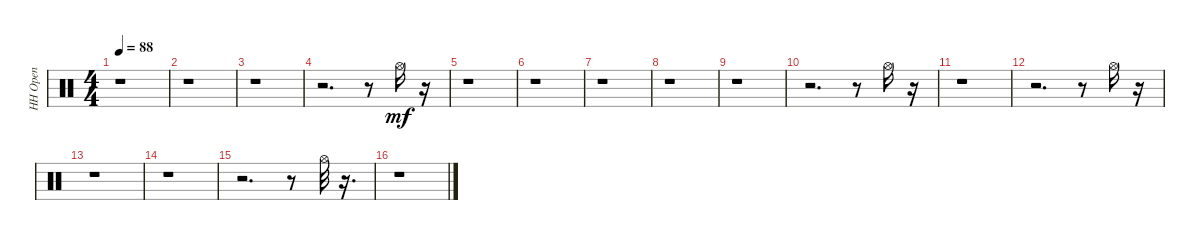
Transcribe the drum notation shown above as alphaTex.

\track ("HH Open" "HH Open") {instrument percussion}
\staff {score}
\articulation defaults
\ts (4 4)
\tempo 88
\clef neutral
\ks c
r.1{dy mf} |
r.1 |
r.1 |
r.2{d} r.8 "Hi-Hat (open)".16 r.16 |
r.1 |
r.1 |
r.1 |
r.1 |
r.1 |
r.2{d} r.8 "Hi-Hat (open)".16 r.16 |
r.1 |
r.2{d} r.8 "Hi-Hat (open)".16 r.16 |
r.1 |
r.1 |
r.2{d} r.8 "Hi-Hat (open)".32 r.16{d} |
r.1
